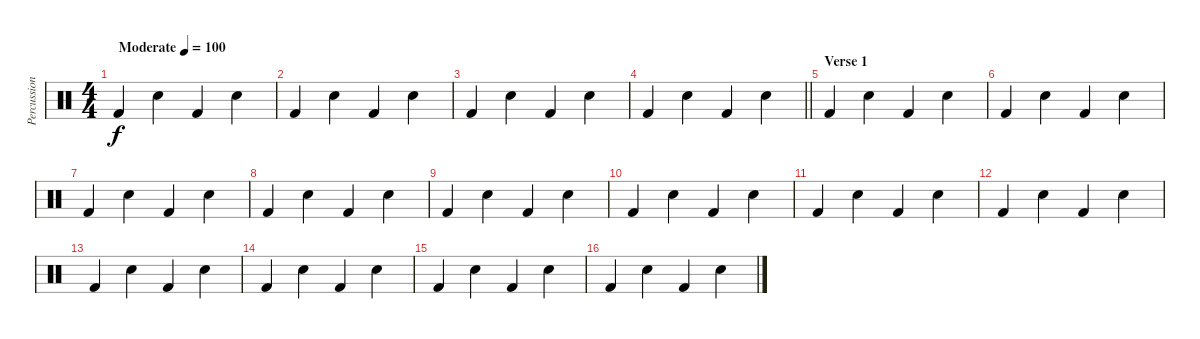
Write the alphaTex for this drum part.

\track ("Percussion" "Percussion") {instrument percussion}
\staff {score}
\articulation defaults
\ts (4 4)
\tempo (100 "Moderate")
\clef neutral
\ks c "Kick (hit) 2".4{dy f} "Snare (hit) 2".4 "Kick (hit) 2".4 "Snare (hit) 2".4
|
"Kick (hit) 2".4 "Snare (hit) 2".4 "Kick (hit) 2".4 "Snare (hit) 2".4 |
"Kick (hit) 2".4 "Snare (hit) 2".4 "Kick (hit) 2".4 "Snare (hit) 2".4 |
\barLineRight lightlight "Kick (hit) 2".4 "Snare (hit) 2".4 "Kick (hit) 2".4 "Snare (hit) 2".4
|
\section ("" "Verse 1")
"Kick (hit) 2".4 "Snare (hit) 2".4 "Kick (hit) 2".4 "Snare (hit) 2".4 |
"Kick (hit) 2".4 "Snare (hit) 2".4 "Kick (hit) 2".4 "Snare (hit) 2".4 |
"Kick (hit) 2".4 "Snare (hit) 2".4 "Kick (hit) 2".4 "Snare (hit) 2".4 |
"Kick (hit) 2".4 "Snare (hit) 2".4 "Kick (hit) 2".4 "Snare (hit) 2".4 |
"Kick (hit) 2".4 "Snare (hit) 2".4 "Kick (hit) 2".4 "Snare (hit) 2".4 |
"Kick (hit) 2".4 "Snare (hit) 2".4 "Kick (hit) 2".4 "Snare (hit) 2".4 |
"Kick (hit) 2".4 "Snare (hit) 2".4 "Kick (hit) 2".4 "Snare (hit) 2".4 |
"Kick (hit) 2".4 "Snare (hit) 2".4 "Kick (hit) 2".4 "Snare (hit) 2".4 |
"Kick (hit) 2".4 "Snare (hit) 2".4 "Kick (hit) 2".4 "Snare (hit) 2".4 |
"Kick (hit) 2".4 "Snare (hit) 2".4 "Kick (hit) 2".4 "Snare (hit) 2".4 |
"Kick (hit) 2".4 "Snare (hit) 2".4 "Kick (hit) 2".4 "Snare (hit) 2".4 |
"Kick (hit) 2".4 "Snare (hit) 2".4 "Kick (hit) 2".4 "Snare (hit) 2".4
